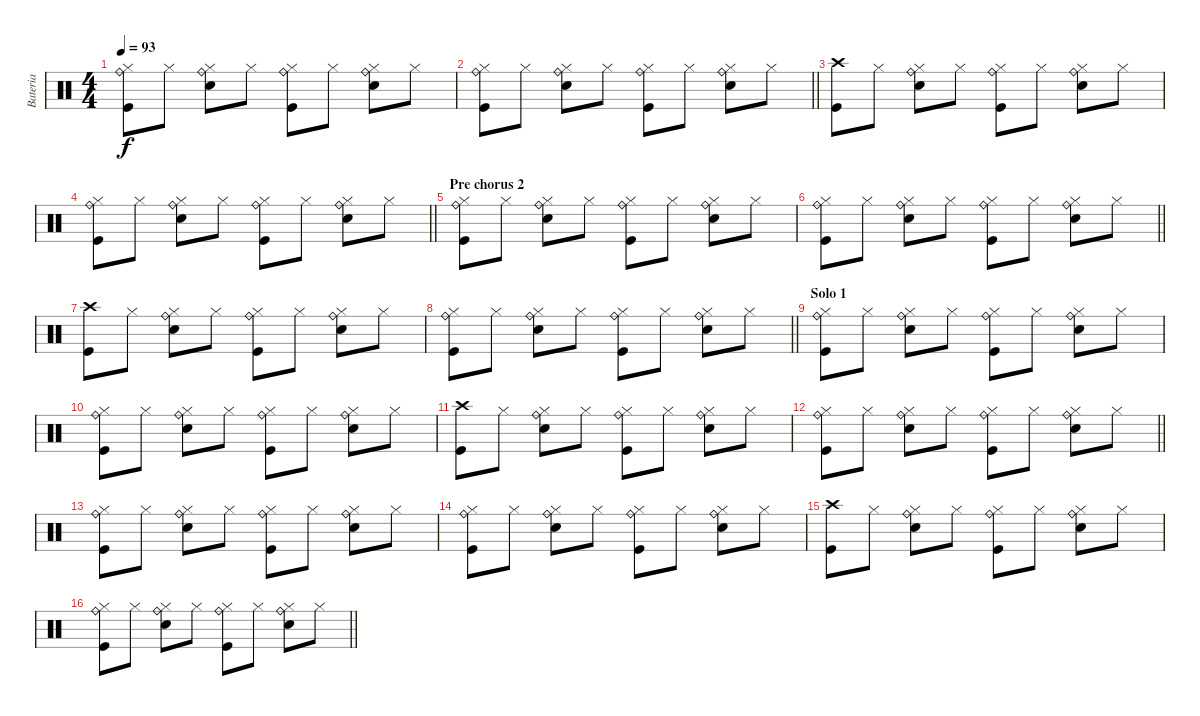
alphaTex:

\track ("Bateria" "Bateria") {instrument percussion}
\staff {score}
\articulation defaults
\ts (4 4)
\tempo 93
\clef neutral
\ks c
("Hi-Hat (closed)" "Kick (hit)" "Ride (bell)").8{dy f} "Hi-Hat (closed)".8 ("Hi-Hat (closed)" "Snare (hit) 2" "Ride (bell)").8 "Hi-Hat (closed)".8 ("Kick (hit)" "Hi-Hat (closed)" "Ride (bell)").8 "Hi-Hat (closed)".8 ("Hi-Hat (closed)" "Snare (hit) 2" "Ride (bell)").8 "Hi-Hat (closed)".8 |
\barLineRight lightlight
("Hi-Hat (closed)" "Kick (hit)" "Ride (bell)").8 "Hi-Hat (closed)".8 ("Hi-Hat (closed)" "Snare (hit) 2" "Ride (bell)").8 "Hi-Hat (closed)".8 ("Kick (hit)" "Hi-Hat (closed)" "Ride (bell)").8 "Hi-Hat (closed)".8 ("Hi-Hat (closed)" "Snare (hit) 2" "Ride (bell)").8 "Hi-Hat (closed)".8 |
("Crash high (hit)" "Kick (hit)").8 "Hi-Hat (closed)".8 ("Hi-Hat (closed)" "Snare (hit) 2" "Ride (bell)").8 "Hi-Hat (closed)".8 ("Kick (hit)" "Hi-Hat (closed)" "Ride (bell)").8 "Hi-Hat (closed)".8 ("Hi-Hat (closed)" "Snare (hit) 2" "Ride (bell)").8 "Hi-Hat (closed)".8 |
\barLineRight lightlight
("Hi-Hat (closed)" "Kick (hit)" "Ride (bell)").8 "Hi-Hat (closed)".8 ("Hi-Hat (closed)" "Snare (hit) 2" "Ride (bell)").8 "Hi-Hat (closed)".8 ("Kick (hit)" "Hi-Hat (closed)" "Ride (bell)").8 "Hi-Hat (closed)".8 ("Hi-Hat (closed)" "Snare (hit) 2" "Ride (bell)").8 "Hi-Hat (closed)".8 |
\section ("" "Pre chorus 2")
("Hi-Hat (closed)" "Kick (hit)" "Ride (bell)").8 "Hi-Hat (closed)".8 ("Hi-Hat (closed)" "Snare (hit) 2" "Ride (bell)").8 "Hi-Hat (closed)".8 ("Kick (hit)" "Hi-Hat (closed)" "Ride (bell)").8 "Hi-Hat (closed)".8 ("Hi-Hat (closed)" "Snare (hit) 2" "Ride (bell)").8 "Hi-Hat (closed)".8 |
\barLineRight lightlight
("Hi-Hat (closed)" "Kick (hit)" "Ride (bell)").8 "Hi-Hat (closed)".8 ("Hi-Hat (closed)" "Snare (hit) 2" "Ride (bell)").8 "Hi-Hat (closed)".8 ("Kick (hit)" "Hi-Hat (closed)" "Ride (bell)").8 "Hi-Hat (closed)".8 ("Hi-Hat (closed)" "Snare (hit) 2" "Ride (bell)").8 "Hi-Hat (closed)".8 |
("Crash high (hit)" "Kick (hit)").8 "Hi-Hat (closed)".8 ("Hi-Hat (closed)" "Snare (hit) 2" "Ride (bell)").8 "Hi-Hat (closed)".8 ("Kick (hit)" "Hi-Hat (closed)" "Ride (bell)").8 "Hi-Hat (closed)".8 ("Hi-Hat (closed)" "Snare (hit) 2" "Ride (bell)").8 "Hi-Hat (closed)".8 |
\barLineRight lightlight
("Hi-Hat (closed)" "Kick (hit)" "Ride (bell)").8 "Hi-Hat (closed)".8 ("Hi-Hat (closed)" "Snare (hit) 2" "Ride (bell)").8 "Hi-Hat (closed)".8 ("Kick (hit)" "Hi-Hat (closed)" "Ride (bell)").8 "Hi-Hat (closed)".8 ("Hi-Hat (closed)" "Snare (hit) 2" "Ride (bell)").8 "Hi-Hat (closed)".8 |
\section ("" "Solo 1")
("Hi-Hat (closed)" "Kick (hit)" "Ride (bell)").8 "Hi-Hat (closed)".8 ("Hi-Hat (closed)" "Snare (hit) 2" "Ride (bell)").8 "Hi-Hat (closed)".8 ("Kick (hit)" "Hi-Hat (closed)" "Ride (bell)").8 "Hi-Hat (closed)".8 ("Hi-Hat (closed)" "Snare (hit) 2" "Ride (bell)").8 "Hi-Hat (closed)".8 |
("Hi-Hat (closed)" "Kick (hit)" "Ride (bell)").8 "Hi-Hat (closed)".8 ("Hi-Hat (closed)" "Snare (hit) 2" "Ride (bell)").8 "Hi-Hat (closed)".8 ("Kick (hit)" "Hi-Hat (closed)" "Ride (bell)").8 "Hi-Hat (closed)".8 ("Hi-Hat (closed)" "Snare (hit) 2" "Ride (bell)").8 "Hi-Hat (closed)".8 |
("Crash high (hit)" "Kick (hit)").8 "Hi-Hat (closed)".8 ("Hi-Hat (closed)" "Snare (hit) 2" "Ride (bell)").8 "Hi-Hat (closed)".8 ("Kick (hit)" "Hi-Hat (closed)" "Ride (bell)").8 "Hi-Hat (closed)".8 ("Hi-Hat (closed)" "Snare (hit) 2" "Ride (bell)").8 "Hi-Hat (closed)".8 |
\barLineRight lightlight
("Hi-Hat (closed)" "Kick (hit)" "Ride (bell)").8 "Hi-Hat (closed)".8 ("Hi-Hat (closed)" "Snare (hit) 2" "Ride (bell)").8 "Hi-Hat (closed)".8 ("Kick (hit)" "Hi-Hat (closed)" "Ride (bell)").8 "Hi-Hat (closed)".8 ("Hi-Hat (closed)" "Snare (hit) 2" "Ride (bell)").8 "Hi-Hat (closed)".8 |
("Hi-Hat (closed)" "Kick (hit)" "Ride (bell)").8 "Hi-Hat (closed)".8 ("Hi-Hat (closed)" "Snare (hit) 2" "Ride (bell)").8 "Hi-Hat (closed)".8 ("Kick (hit)" "Hi-Hat (closed)" "Ride (bell)").8 "Hi-Hat (closed)".8 ("Hi-Hat (closed)" "Snare (hit) 2" "Ride (bell)").8 "Hi-Hat (closed)".8 |
("Hi-Hat (closed)" "Kick (hit)" "Ride (bell)").8 "Hi-Hat (closed)".8 ("Hi-Hat (closed)" "Snare (hit) 2" "Ride (bell)").8 "Hi-Hat (closed)".8 ("Kick (hit)" "Hi-Hat (closed)" "Ride (bell)").8 "Hi-Hat (closed)".8 ("Hi-Hat (closed)" "Snare (hit) 2" "Ride (bell)").8 "Hi-Hat (closed)".8 |
("Crash high (hit)" "Kick (hit)").8 "Hi-Hat (closed)".8 ("Hi-Hat (closed)" "Snare (hit) 2" "Ride (bell)").8 "Hi-Hat (closed)".8 ("Kick (hit)" "Hi-Hat (closed)" "Ride (bell)").8 "Hi-Hat (closed)".8 ("Hi-Hat (closed)" "Snare (hit) 2" "Ride (bell)").8 "Hi-Hat (closed)".8 |
\barLineRight lightlight
("Hi-Hat (closed)" "Kick (hit)" "Ride (bell)").8 "Hi-Hat (closed)".8 ("Hi-Hat (closed)" "Snare (hit) 2" "Ride (bell)").8 "Hi-Hat (closed)".8 ("Kick (hit)" "Hi-Hat (closed)" "Ride (bell)").8 "Hi-Hat (closed)".8 ("Hi-Hat (closed)" "Snare (hit) 2" "Ride (bell)").8 "Hi-Hat (closed)".8
